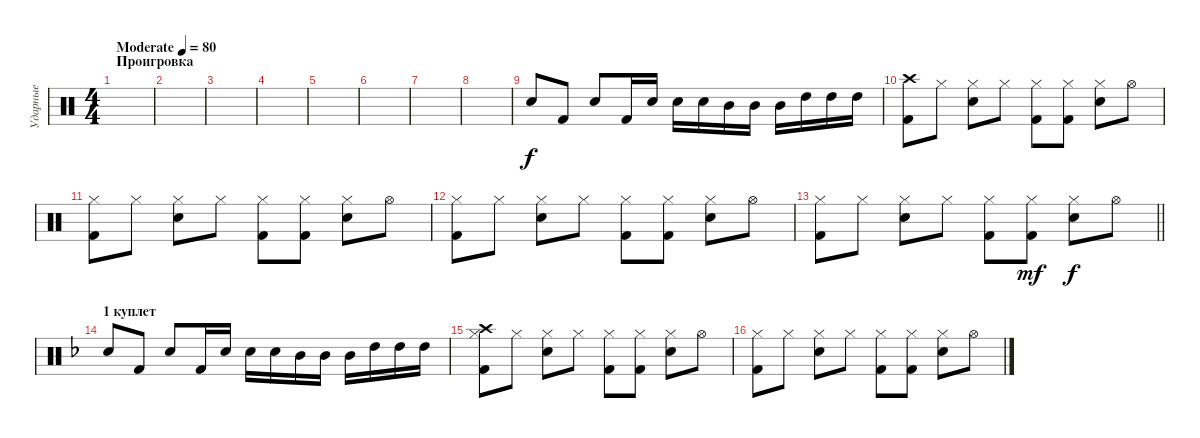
\track ("Ударные" "Ударные") {instrument percussion}
\staff {score}
\articulation defaults
\ts (4 4)
\section ("" "Проигровка")
\tempo (80 "Moderate")
\clef neutral
\ks c
|
|
|
|
|
|
|
|
"Snare (hit) 2".8 "Kick (hit) 2".8 "Snare (hit) 2".8 "Kick (hit) 2".16 "Snare (hit) 2".16 "Snare (hit) 2".16 "Snare (hit) 2".16 "Mid Tom (hit)".16 "Mid Tom (hit)".16 "Mid Tom (hit)".16 "High Tom (hit)".16 "High Tom (hit)".16 "High Tom (hit)".16 |
("Crash high (hit)" "Kick (hit) 2").8 "Hi-Hat (closed)".8 ("Hi-Hat (closed)" "Snare (hit) 2").8 "Hi-Hat (closed)".8 ("Hi-Hat (closed)" "Kick (hit) 2").8 ("Hi-Hat (closed)" "Kick (hit) 2").8 ("Hi-Hat (closed)" "Snare (hit) 2").8 "Hi-Hat (open)".8 |
("Hi-Hat (closed)" "Kick (hit) 2").8 "Hi-Hat (closed)".8 ("Hi-Hat (closed)" "Snare (hit) 2").8 "Hi-Hat (closed)".8 ("Hi-Hat (closed)" "Kick (hit) 2").8 ("Hi-Hat (closed)" "Kick (hit) 2").8 ("Hi-Hat (closed)" "Snare (hit) 2").8 "Hi-Hat (open)".8 |
("Hi-Hat (closed)" "Kick (hit) 2").8 "Hi-Hat (closed)".8 ("Hi-Hat (closed)" "Snare (hit) 2").8 "Hi-Hat (closed)".8 ("Hi-Hat (closed)" "Kick (hit) 2").8 ("Hi-Hat (closed)" "Kick (hit) 2").8 ("Hi-Hat (closed)" "Snare (hit) 2").8 "Hi-Hat (open)".8 |
\barLineRight lightlight
("Hi-Hat (closed)" "Kick (hit) 2").8 "Hi-Hat (closed)".8 ("Hi-Hat (closed)" "Snare (hit) 2").8 "Hi-Hat (closed)".8 ("Hi-Hat (closed)" "Kick (hit) 2").8 ("Hi-Hat (closed)" "Kick (hit) 2").8{dy mf} ("Hi-Hat (closed)" "Snare (hit) 2").8{dy f} "Hi-Hat (open)".8 |
\section ("" "1 куплет")
\ks f "Snare (hit) 2".8 "Kick (hit) 2".8 "Snare (hit) 2".8 "Kick (hit) 2".16 "Snare (hit) 2".16 "Snare (hit) 2".16 "Snare (hit) 2".16 "Mid Tom (hit)".16 "Mid Tom (hit)".16 "Mid Tom (hit)".16 "High Tom (hit)".16 "High Tom (hit)".16 "High Tom (hit)".16
|
("Hi-Hat (closed)" "Crash high (hit)" "Kick (hit) 2").8 "Hi-Hat (closed)".8 ("Hi-Hat (closed)" "Snare (hit) 2").8 "Hi-Hat (closed)".8 ("Hi-Hat (closed)" "Kick (hit) 2").8 ("Hi-Hat (closed)" "Kick (hit) 2").8 ("Hi-Hat (closed)" "Snare (hit) 2").8 "Hi-Hat (open)".8 |
("Hi-Hat (closed)" "Kick (hit) 2").8 "Hi-Hat (closed)".8 ("Hi-Hat (closed)" "Snare (hit) 2").8 "Hi-Hat (closed)".8 ("Hi-Hat (closed)" "Kick (hit) 2").8 ("Hi-Hat (closed)" "Kick (hit) 2").8 ("Hi-Hat (closed)" "Snare (hit) 2").8 "Hi-Hat (open)".8
